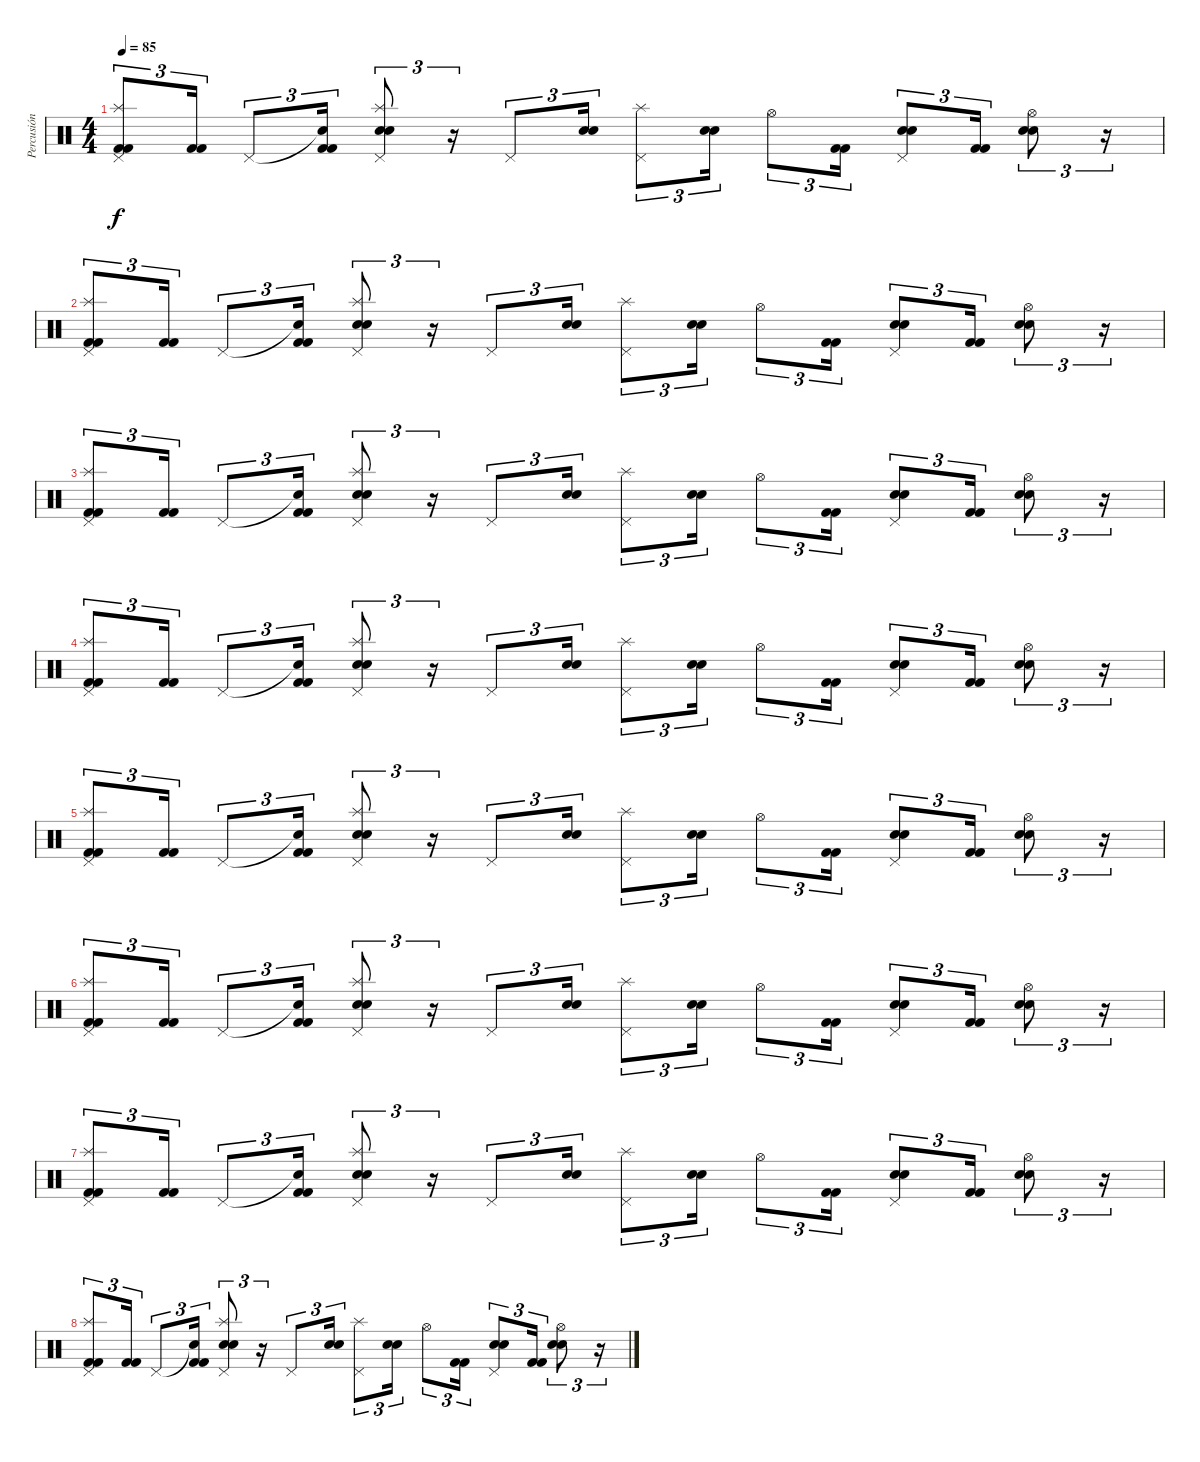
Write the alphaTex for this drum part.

\track ("Percusión" "Percusión") {instrument percussion}
\staff {score}
\articulation defaults
\ts (4 4)
\tempo 85
\clef neutral
\ks c
("Pedal Hi-Hat (hit)" "Splash (hit)" "Kick (hit) 2" "Kick (hit) 2").8{tu (3 2) dy f} ("Kick (hit) 2" "Kick (hit) 2").16{tu (3 2)} "Pedal Hi-Hat (hit)".8{tu (3 2)} ("Snare (hit)"{t} "Kick (hit) 2" "Kick (hit) 2").16{tu (3 2)} ("Pedal Hi-Hat (hit)" "Splash (hit)" "Electric Snare (hit)" "Electric Snare (hit)").8{tu (3 2)} r.16{tu (3 2)} "Pedal Hi-Hat (hit)".8{tu (3 2)} ("Electric Snare (hit)" "Electric Snare (hit)").16{tu (3 2)} ("Pedal Hi-Hat (hit)" "Splash (hit)").8{tu (3 2)} ("Electric Snare (hit)" "Electric Snare (hit)").16{tu (3 2)} "Hi-Hat (open)".8{tu (3 2)} ("Kick (hit) 2" "Kick (hit) 2").16{tu (3 2)} ("Pedal Hi-Hat (hit)" "Electric Snare (hit)" "Electric Snare (hit)").8{tu (3 2)} ("Kick (hit) 2" "Kick (hit) 2").16{tu (3 2)} ("Hi-Hat (open)" "Electric Snare (hit)" "Electric Snare (hit)").8{tu (3 2)} r.16{tu (3 2)} |
("Pedal Hi-Hat (hit)" "Splash (hit)" "Kick (hit) 2" "Kick (hit) 2").8{tu (3 2)} ("Kick (hit) 2" "Kick (hit) 2").16{tu (3 2)} "Pedal Hi-Hat (hit)".8{tu (3 2)} ("Snare (hit)"{t} "Kick (hit) 2" "Kick (hit) 2").16{tu (3 2)} ("Pedal Hi-Hat (hit)" "Splash (hit)" "Electric Snare (hit)" "Electric Snare (hit)").8{tu (3 2)} r.16{tu (3 2)} "Pedal Hi-Hat (hit)".8{tu (3 2)} ("Electric Snare (hit)" "Electric Snare (hit)").16{tu (3 2)} ("Pedal Hi-Hat (hit)" "Splash (hit)").8{tu (3 2)} ("Electric Snare (hit)" "Electric Snare (hit)").16{tu (3 2)} "Hi-Hat (open)".8{tu (3 2)} ("Kick (hit) 2" "Kick (hit) 2").16{tu (3 2)} ("Pedal Hi-Hat (hit)" "Electric Snare (hit)" "Electric Snare (hit)").8{tu (3 2)} ("Kick (hit) 2" "Kick (hit) 2").16{tu (3 2)} ("Hi-Hat (open)" "Electric Snare (hit)" "Electric Snare (hit)").8{tu (3 2)} r.16{tu (3 2)} |
("Pedal Hi-Hat (hit)" "Splash (hit)" "Kick (hit) 2" "Kick (hit) 2").8{tu (3 2)} ("Kick (hit) 2" "Kick (hit) 2").16{tu (3 2)} "Pedal Hi-Hat (hit)".8{tu (3 2)} ("Snare (hit)"{t} "Kick (hit) 2" "Kick (hit) 2").16{tu (3 2)} ("Pedal Hi-Hat (hit)" "Splash (hit)" "Electric Snare (hit)" "Electric Snare (hit)").8{tu (3 2)} r.16{tu (3 2)} "Pedal Hi-Hat (hit)".8{tu (3 2)} ("Electric Snare (hit)" "Electric Snare (hit)").16{tu (3 2)} ("Pedal Hi-Hat (hit)" "Splash (hit)").8{tu (3 2)} ("Electric Snare (hit)" "Electric Snare (hit)").16{tu (3 2)} "Hi-Hat (open)".8{tu (3 2)} ("Kick (hit) 2" "Kick (hit) 2").16{tu (3 2)} ("Pedal Hi-Hat (hit)" "Electric Snare (hit)" "Electric Snare (hit)").8{tu (3 2)} ("Kick (hit) 2" "Kick (hit) 2").16{tu (3 2)} ("Hi-Hat (open)" "Electric Snare (hit)" "Electric Snare (hit)").8{tu (3 2)} r.16{tu (3 2)} |
("Pedal Hi-Hat (hit)" "Splash (hit)" "Kick (hit) 2" "Kick (hit) 2").8{tu (3 2)} ("Kick (hit) 2" "Kick (hit) 2").16{tu (3 2)} "Pedal Hi-Hat (hit)".8{tu (3 2)} ("Snare (hit)"{t} "Kick (hit) 2" "Kick (hit) 2").16{tu (3 2)} ("Pedal Hi-Hat (hit)" "Splash (hit)" "Electric Snare (hit)" "Electric Snare (hit)").8{tu (3 2)} r.16{tu (3 2)} "Pedal Hi-Hat (hit)".8{tu (3 2)} ("Electric Snare (hit)" "Electric Snare (hit)").16{tu (3 2)} ("Pedal Hi-Hat (hit)" "Splash (hit)").8{tu (3 2)} ("Electric Snare (hit)" "Electric Snare (hit)").16{tu (3 2)} "Hi-Hat (open)".8{tu (3 2)} ("Kick (hit) 2" "Kick (hit) 2").16{tu (3 2)} ("Pedal Hi-Hat (hit)" "Electric Snare (hit)" "Electric Snare (hit)").8{tu (3 2)} ("Kick (hit) 2" "Kick (hit) 2").16{tu (3 2)} ("Hi-Hat (open)" "Electric Snare (hit)" "Electric Snare (hit)").8{tu (3 2)} r.16{tu (3 2)} |
("Pedal Hi-Hat (hit)" "Splash (hit)" "Kick (hit) 2" "Kick (hit) 2").8{tu (3 2)} ("Kick (hit) 2" "Kick (hit) 2").16{tu (3 2)} "Pedal Hi-Hat (hit)".8{tu (3 2)} ("Snare (hit)"{t} "Kick (hit) 2" "Kick (hit) 2").16{tu (3 2)} ("Pedal Hi-Hat (hit)" "Splash (hit)" "Electric Snare (hit)" "Electric Snare (hit)").8{tu (3 2)} r.16{tu (3 2)} "Pedal Hi-Hat (hit)".8{tu (3 2)} ("Electric Snare (hit)" "Electric Snare (hit)").16{tu (3 2)} ("Pedal Hi-Hat (hit)" "Splash (hit)").8{tu (3 2)} ("Electric Snare (hit)" "Electric Snare (hit)").16{tu (3 2)} "Hi-Hat (open)".8{tu (3 2)} ("Kick (hit) 2" "Kick (hit) 2").16{tu (3 2)} ("Pedal Hi-Hat (hit)" "Electric Snare (hit)" "Electric Snare (hit)").8{tu (3 2)} ("Kick (hit) 2" "Kick (hit) 2").16{tu (3 2)} ("Hi-Hat (open)" "Electric Snare (hit)" "Electric Snare (hit)").8{tu (3 2)} r.16{tu (3 2)} |
("Pedal Hi-Hat (hit)" "Splash (hit)" "Kick (hit) 2" "Kick (hit) 2").8{tu (3 2)} ("Kick (hit) 2" "Kick (hit) 2").16{tu (3 2)} "Pedal Hi-Hat (hit)".8{tu (3 2)} ("Snare (hit)"{t} "Kick (hit) 2" "Kick (hit) 2").16{tu (3 2)} ("Pedal Hi-Hat (hit)" "Splash (hit)" "Electric Snare (hit)" "Electric Snare (hit)").8{tu (3 2)} r.16{tu (3 2)} "Pedal Hi-Hat (hit)".8{tu (3 2)} ("Electric Snare (hit)" "Electric Snare (hit)").16{tu (3 2)} ("Pedal Hi-Hat (hit)" "Splash (hit)").8{tu (3 2)} ("Electric Snare (hit)" "Electric Snare (hit)").16{tu (3 2)} "Hi-Hat (open)".8{tu (3 2)} ("Kick (hit) 2" "Kick (hit) 2").16{tu (3 2)} ("Pedal Hi-Hat (hit)" "Electric Snare (hit)" "Electric Snare (hit)").8{tu (3 2)} ("Kick (hit) 2" "Kick (hit) 2").16{tu (3 2)} ("Hi-Hat (open)" "Electric Snare (hit)" "Electric Snare (hit)").8{tu (3 2)} r.16{tu (3 2)} |
("Pedal Hi-Hat (hit)" "Splash (hit)" "Kick (hit) 2" "Kick (hit) 2").8{tu (3 2)} ("Kick (hit) 2" "Kick (hit) 2").16{tu (3 2)} "Pedal Hi-Hat (hit)".8{tu (3 2)} ("Snare (hit)"{t} "Kick (hit) 2" "Kick (hit) 2").16{tu (3 2)} ("Pedal Hi-Hat (hit)" "Splash (hit)" "Electric Snare (hit)" "Electric Snare (hit)").8{tu (3 2)} r.16{tu (3 2)} "Pedal Hi-Hat (hit)".8{tu (3 2)} ("Electric Snare (hit)" "Electric Snare (hit)").16{tu (3 2)} ("Pedal Hi-Hat (hit)" "Splash (hit)").8{tu (3 2)} ("Electric Snare (hit)" "Electric Snare (hit)").16{tu (3 2)} "Hi-Hat (open)".8{tu (3 2)} ("Kick (hit) 2" "Kick (hit) 2").16{tu (3 2)} ("Pedal Hi-Hat (hit)" "Electric Snare (hit)" "Electric Snare (hit)").8{tu (3 2)} ("Kick (hit) 2" "Kick (hit) 2").16{tu (3 2)} ("Hi-Hat (open)" "Electric Snare (hit)" "Electric Snare (hit)").8{tu (3 2)} r.16{tu (3 2)} |
("Pedal Hi-Hat (hit)" "Splash (hit)" "Kick (hit) 2" "Kick (hit) 2").8{tu (3 2)} ("Kick (hit) 2" "Kick (hit) 2").16{tu (3 2)} "Pedal Hi-Hat (hit)".8{tu (3 2)} ("Snare (hit)"{t} "Kick (hit) 2" "Kick (hit) 2").16{tu (3 2)} ("Pedal Hi-Hat (hit)" "Splash (hit)" "Electric Snare (hit)" "Electric Snare (hit)").8{tu (3 2)} r.16{tu (3 2)} "Pedal Hi-Hat (hit)".8{tu (3 2)} ("Electric Snare (hit)" "Electric Snare (hit)").16{tu (3 2)} ("Pedal Hi-Hat (hit)" "Splash (hit)").8{tu (3 2)} ("Electric Snare (hit)" "Electric Snare (hit)").16{tu (3 2)} "Hi-Hat (open)".8{tu (3 2)} ("Kick (hit) 2" "Kick (hit) 2").16{tu (3 2)} ("Pedal Hi-Hat (hit)" "Electric Snare (hit)" "Electric Snare (hit)").8{tu (3 2)} ("Kick (hit) 2" "Kick (hit) 2").16{tu (3 2)} ("Hi-Hat (open)" "Electric Snare (hit)" "Electric Snare (hit)").8{tu (3 2)} r.16{tu (3 2)}
